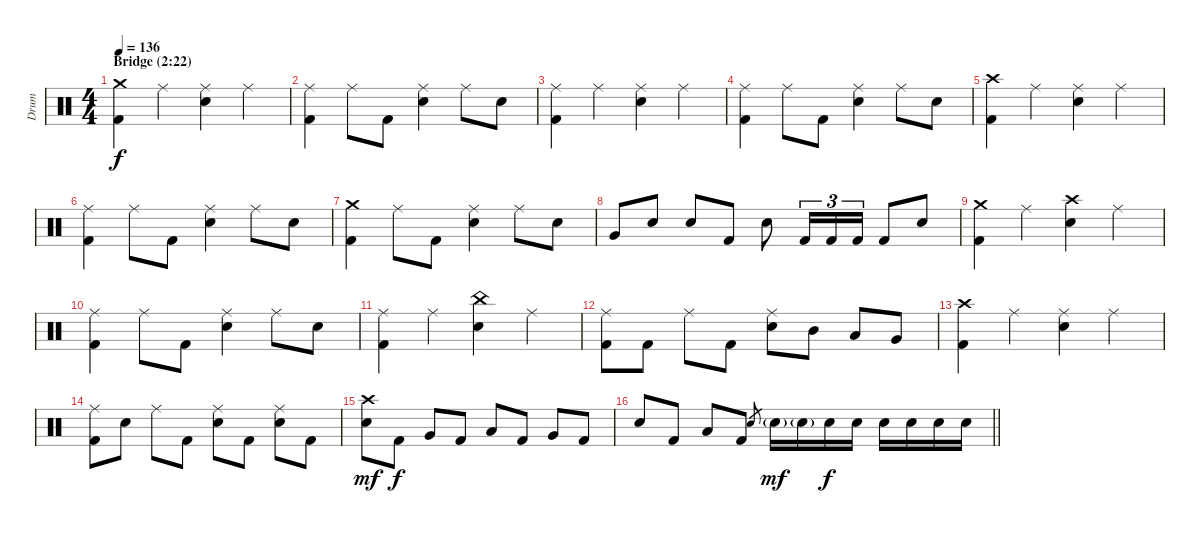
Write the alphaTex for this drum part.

\track ("Drum" "Drum") {instrument percussion}
\staff {score}
\articulation defaults
\ts (4 4)
\section ("" "Bridge (2:22)")
\tempo 136
\clef neutral
\ks c
("Crash medium (hit)" "Kick (hit) 2").4{dy f} "Ride (middle)".4 ("Ride (middle)" "Snare (hit) 2").4 "Ride (middle)".4 |
("Ride (middle)" "Kick (hit) 2").4 "Ride (middle)".8 "Kick (hit) 2".8 ("Ride (middle)" "Snare (hit) 2").4 "Ride (middle)".8 "Snare (hit) 2".8 |
("Ride (middle)" "Kick (hit) 2").4 "Ride (middle)".4 ("Ride (middle)" "Snare (hit) 2").4 "Ride (middle)".4 |
("Ride (middle)" "Kick (hit) 2").4 "Ride (middle)".8 "Kick (hit) 2".8 ("Ride (middle)" "Snare (hit) 2").4 "Ride (middle)".8 "Snare (hit) 2".8 |
("Crash high (hit)" "Kick (hit) 2").4 "Ride (middle)".4 ("Ride (middle)" "Snare (hit) 2").4 "Ride (middle)".4 |
("Ride (middle)" "Kick (hit) 2").4 "Ride (middle)".8 "Kick (hit) 2".8 ("Ride (middle)" "Snare (hit) 2").4 "Ride (middle)".8 "Snare (hit) 2".8 |
("Crash medium (hit)" "Kick (hit) 2").4 "Ride (middle)".8 "Kick (hit) 2".8 ("Ride (middle)" "Snare (hit) 2").4 "Ride (middle)".8 "Snare (hit) 2".8 |
"Very Low Tom (hit)".8 "Snare (hit) 2".8 "Snare (hit) 2".8 "Kick (hit) 2".8 "Snare (hit) 2".8 "Kick (hit) 2".16{tu (3 2)} "Kick (hit) 2".16{tu (3 2)} "Kick (hit) 2".16{tu (3 2)} "Kick (hit) 2".8 "Snare (hit) 2".8 |
("Crash medium (hit)" "Kick (hit) 2").4 "Ride (middle)".4 ("Crash high (hit)" "Snare (hit) 2").4 "Ride (middle)".4 |
("Ride (middle)" "Kick (hit) 2").4 "Ride (middle)".8 "Kick (hit) 2".8 ("Ride (middle)" "Snare (hit) 2").4 "Ride (middle)".8 "Snare (hit) 2".8 |
("Ride (middle)" "Kick (hit) 2").4 "Ride (middle)".4 ("China (hit)" "Snare (hit) 2").4 "Ride (middle)".4 |
("Ride (middle)" "Kick (hit) 2").8 "Kick (hit) 2".8 "Ride (middle)".8 "Kick (hit) 2".8 ("Ride (middle)" "Snare (hit) 2").8 "Mid Tom (hit)".8 "Low Tom (hit)".8 "Very Low Tom (hit)".8 |
("Crash high (hit)" "Kick (hit) 2").4 "Ride (middle)".4 ("Ride (middle)" "Snare (hit) 2").4 "Ride (middle)".4 |
("Ride (middle)" "Kick (hit) 2").8 "Snare (hit) 2".8 "Ride (middle)".8 "Kick (hit) 2".8 ("Ride (middle)" "Snare (hit) 2").8 "Kick (hit) 2".8 ("Ride (middle)" "Snare (hit) 2").8 "Kick (hit) 2".8 |
("Crash high (hit)" "Snare (hit) 2").8{dy mf} "Kick (hit) 2".8{dy f} "Very Low Tom (hit)".8 "Kick (hit) 2".8 "Low Tom (hit)".8 "Kick (hit) 2".8 "Very Low Tom (hit)".8 "Kick (hit) 2".8 |
\barLineRight lightlight "Snare (hit) 2".8 "Kick (hit) 2".8 "Low Tom (hit)".8 "Kick (hit) 2".8 "Electric Snare (hit)".8{gr} "Snare (hit) 2"{g}.16{dy mf} "Snare (hit) 2"{g}.16 "Snare (hit) 2".16{dy f} "Snare (hit) 2".16 "Snare (hit) 2".16 "Snare (hit) 2".16 "Snare (hit) 2".16 "Snare (hit) 2".16
